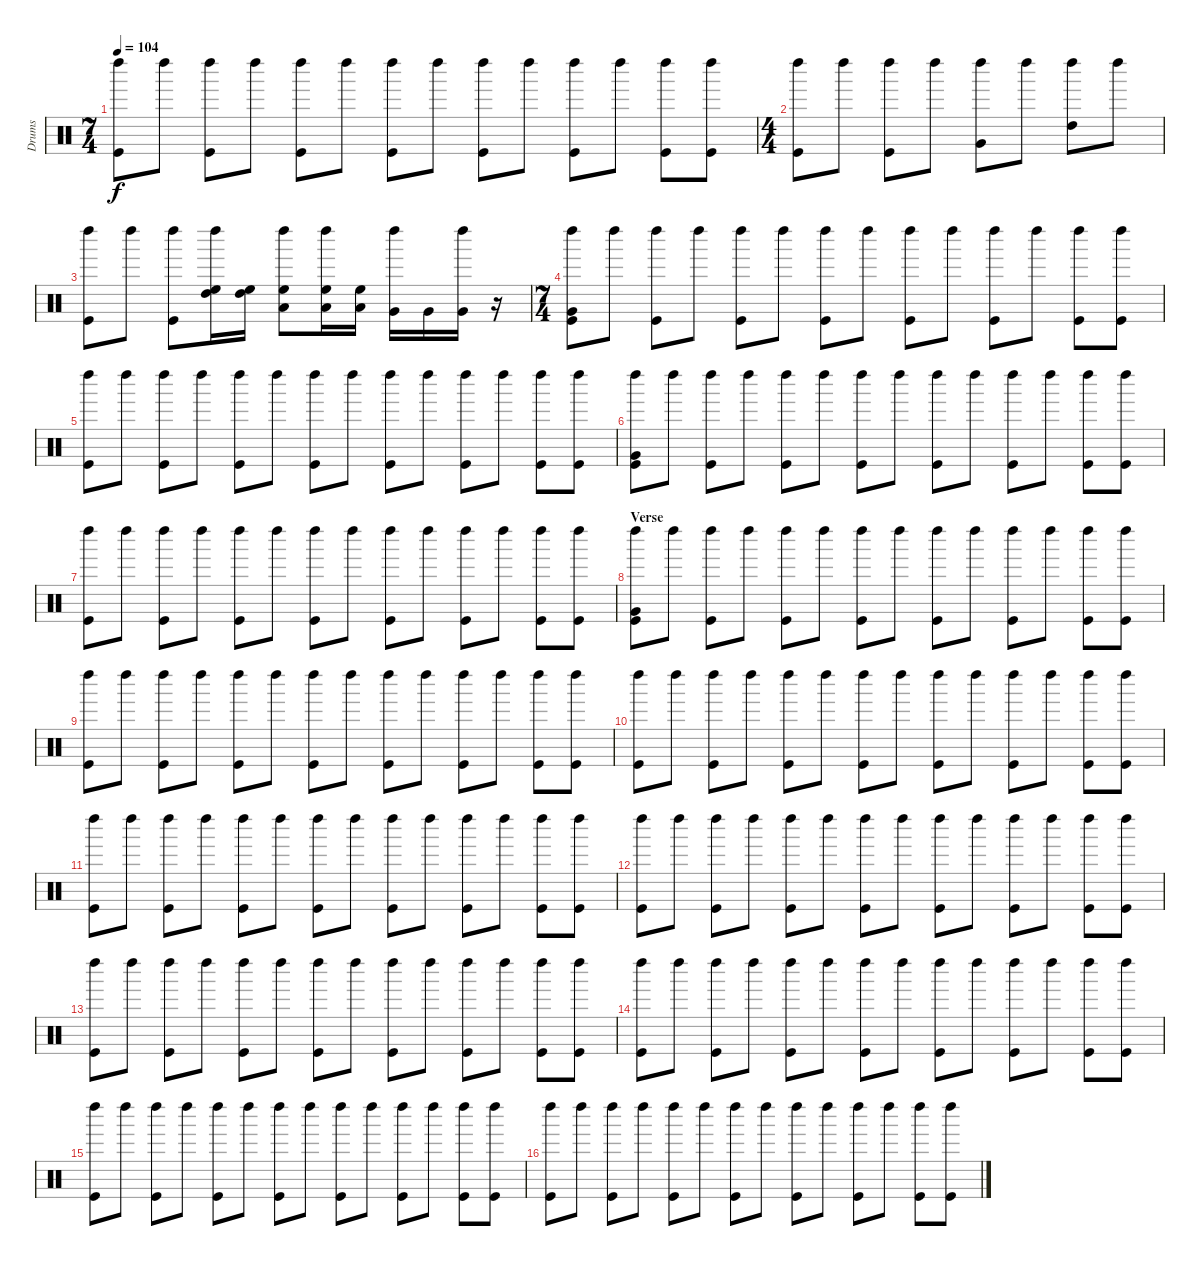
\track ("Drums" "Drums") {instrument percussion}
\staff {score}
\articulation defaults
\ts (7 4)
\tempo 104
\clef neutral
\ks c
("Left Maraca (hit)" "Kick (hit)").8{dy f} "Left Maraca (hit)".8 ("Left Maraca (hit)" "Kick (hit)").8 "Left Maraca (hit)".8 ("Left Maraca (hit)" "Kick (hit)").8 "Left Maraca (hit)".8 ("Left Maraca (hit)" "Kick (hit)").8 "Left Maraca (hit)".8 ("Left Maraca (hit)" "Kick (hit)").8 "Left Maraca (hit)".8 ("Left Maraca (hit)" "Kick (hit)").8 "Left Maraca (hit)".8 ("Left Maraca (hit)" "Kick (hit)").8 ("Left Maraca (hit)" "Kick (hit)").8 |
\ts (4 4)
("Left Maraca (hit)" "Kick (hit)").8 "Left Maraca (hit)".8 ("Left Maraca (hit)" "Kick (hit)").8 "Left Maraca (hit)".8 ("Left Maraca (hit)" "Very Low Tom (hit)").8 "Left Maraca (hit)".8 ("Left Maraca (hit)" "High Tom (hit)").8 "Left Maraca (hit)".8 |
("Left Maraca (hit)" "Kick (hit)").8 "Left Maraca (hit)".8 ("Left Maraca (hit)" "Kick (hit)").8 ("Left Maraca (hit)" "High Floor Tom (hit)" "High Tom (hit)").16 ("High Floor Tom (hit)" "High Tom (hit)").16 ("Left Maraca (hit)" "High Floor Tom (hit)" "Low Tom (hit)").8 ("Left Maraca (hit)" "High Floor Tom (hit)" "Low Tom (hit)").16 ("High Floor Tom (hit)" "Low Tom (hit)").16 ("Left Maraca (hit)" "Very Low Tom (hit)").16 "Very Low Tom (hit)".16 ("Left Maraca (hit)" "Very Low Tom (hit)").16 r.16 |
\ts (7 4)
("Left Maraca (hit)" "Very Low Tom (hit)" "Kick (hit)").8 "Left Maraca (hit)".8 ("Left Maraca (hit)" "Kick (hit)").8 "Left Maraca (hit)".8 ("Left Maraca (hit)" "Kick (hit)").8 "Left Maraca (hit)".8 ("Left Maraca (hit)" "Kick (hit)").8 "Left Maraca (hit)".8 ("Left Maraca (hit)" "Kick (hit)").8 "Left Maraca (hit)".8 ("Left Maraca (hit)" "Kick (hit)").8 "Left Maraca (hit)".8 ("Left Maraca (hit)" "Kick (hit)").8 ("Left Maraca (hit)" "Kick (hit)").8 |
("Left Maraca (hit)" "Kick (hit)").8 "Left Maraca (hit)".8 ("Left Maraca (hit)" "Kick (hit)").8 "Left Maraca (hit)".8 ("Left Maraca (hit)" "Kick (hit)").8 "Left Maraca (hit)".8 ("Left Maraca (hit)" "Kick (hit)").8 "Left Maraca (hit)".8 ("Left Maraca (hit)" "Kick (hit)").8 "Left Maraca (hit)".8 ("Left Maraca (hit)" "Kick (hit)").8 "Left Maraca (hit)".8 ("Left Maraca (hit)" "Kick (hit)").8 ("Left Maraca (hit)" "Kick (hit)").8 |
("Left Maraca (hit)" "Very Low Tom (hit)" "Kick (hit)").8 "Left Maraca (hit)".8 ("Left Maraca (hit)" "Kick (hit)").8 "Left Maraca (hit)".8 ("Left Maraca (hit)" "Kick (hit)").8 "Left Maraca (hit)".8 ("Left Maraca (hit)" "Kick (hit)").8 "Left Maraca (hit)".8 ("Left Maraca (hit)" "Kick (hit)").8 "Left Maraca (hit)".8 ("Left Maraca (hit)" "Kick (hit)").8 "Left Maraca (hit)".8 ("Left Maraca (hit)" "Kick (hit)").8 ("Left Maraca (hit)" "Kick (hit)").8 |
("Left Maraca (hit)" "Kick (hit)").8 "Left Maraca (hit)".8 ("Left Maraca (hit)" "Kick (hit)").8 "Left Maraca (hit)".8 ("Left Maraca (hit)" "Kick (hit)").8 "Left Maraca (hit)".8 ("Left Maraca (hit)" "Kick (hit)").8 "Left Maraca (hit)".8 ("Left Maraca (hit)" "Kick (hit)").8 "Left Maraca (hit)".8 ("Left Maraca (hit)" "Kick (hit)").8 "Left Maraca (hit)".8 ("Left Maraca (hit)" "Kick (hit)").8 ("Left Maraca (hit)" "Kick (hit)").8 |
\section ("" "Verse")
("Left Maraca (hit)" "Very Low Tom (hit)" "Kick (hit)").8 "Left Maraca (hit)".8 ("Left Maraca (hit)" "Kick (hit)").8 "Left Maraca (hit)".8 ("Left Maraca (hit)" "Kick (hit)").8 "Left Maraca (hit)".8 ("Left Maraca (hit)" "Kick (hit)").8 "Left Maraca (hit)".8 ("Left Maraca (hit)" "Kick (hit)").8 "Left Maraca (hit)".8 ("Left Maraca (hit)" "Kick (hit)").8 "Left Maraca (hit)".8 ("Left Maraca (hit)" "Kick (hit)").8 ("Left Maraca (hit)" "Kick (hit)").8 |
("Left Maraca (hit)" "Kick (hit)").8 "Left Maraca (hit)".8 ("Left Maraca (hit)" "Kick (hit)").8 "Left Maraca (hit)".8 ("Left Maraca (hit)" "Kick (hit)").8 "Left Maraca (hit)".8 ("Left Maraca (hit)" "Kick (hit)").8 "Left Maraca (hit)".8 ("Left Maraca (hit)" "Kick (hit)").8 "Left Maraca (hit)".8 ("Left Maraca (hit)" "Kick (hit)").8 "Left Maraca (hit)".8 ("Left Maraca (hit)" "Kick (hit)").8 ("Left Maraca (hit)" "Kick (hit)").8 |
("Left Maraca (hit)" "Kick (hit)").8 "Left Maraca (hit)".8 ("Left Maraca (hit)" "Kick (hit)").8 "Left Maraca (hit)".8 ("Left Maraca (hit)" "Kick (hit)").8 "Left Maraca (hit)".8 ("Left Maraca (hit)" "Kick (hit)").8 "Left Maraca (hit)".8 ("Left Maraca (hit)" "Kick (hit)").8 "Left Maraca (hit)".8 ("Left Maraca (hit)" "Kick (hit)").8 "Left Maraca (hit)".8 ("Left Maraca (hit)" "Kick (hit)").8 ("Left Maraca (hit)" "Kick (hit)").8 |
("Left Maraca (hit)" "Kick (hit)").8 "Left Maraca (hit)".8 ("Left Maraca (hit)" "Kick (hit)").8 "Left Maraca (hit)".8 ("Left Maraca (hit)" "Kick (hit)").8 "Left Maraca (hit)".8 ("Left Maraca (hit)" "Kick (hit)").8 "Left Maraca (hit)".8 ("Left Maraca (hit)" "Kick (hit)").8 "Left Maraca (hit)".8 ("Left Maraca (hit)" "Kick (hit)").8 "Left Maraca (hit)".8 ("Left Maraca (hit)" "Kick (hit)").8 ("Left Maraca (hit)" "Kick (hit)").8 |
("Left Maraca (hit)" "Kick (hit)").8 "Left Maraca (hit)".8 ("Left Maraca (hit)" "Kick (hit)").8 "Left Maraca (hit)".8 ("Left Maraca (hit)" "Kick (hit)").8 "Left Maraca (hit)".8 ("Left Maraca (hit)" "Kick (hit)").8 "Left Maraca (hit)".8 ("Left Maraca (hit)" "Kick (hit)").8 "Left Maraca (hit)".8 ("Left Maraca (hit)" "Kick (hit)").8 "Left Maraca (hit)".8 ("Left Maraca (hit)" "Kick (hit)").8 ("Left Maraca (hit)" "Kick (hit)").8 |
("Left Maraca (hit)" "Kick (hit)").8 "Left Maraca (hit)".8 ("Left Maraca (hit)" "Kick (hit)").8 "Left Maraca (hit)".8 ("Left Maraca (hit)" "Kick (hit)").8 "Left Maraca (hit)".8 ("Left Maraca (hit)" "Kick (hit)").8 "Left Maraca (hit)".8 ("Left Maraca (hit)" "Kick (hit)").8 "Left Maraca (hit)".8 ("Left Maraca (hit)" "Kick (hit)").8 "Left Maraca (hit)".8 ("Left Maraca (hit)" "Kick (hit)").8 ("Left Maraca (hit)" "Kick (hit)").8 |
("Left Maraca (hit)" "Kick (hit)").8 "Left Maraca (hit)".8 ("Left Maraca (hit)" "Kick (hit)").8 "Left Maraca (hit)".8 ("Left Maraca (hit)" "Kick (hit)").8 "Left Maraca (hit)".8 ("Left Maraca (hit)" "Kick (hit)").8 "Left Maraca (hit)".8 ("Left Maraca (hit)" "Kick (hit)").8 "Left Maraca (hit)".8 ("Left Maraca (hit)" "Kick (hit)").8 "Left Maraca (hit)".8 ("Left Maraca (hit)" "Kick (hit)").8 ("Left Maraca (hit)" "Kick (hit)").8 |
("Left Maraca (hit)" "Kick (hit)").8 "Left Maraca (hit)".8 ("Left Maraca (hit)" "Kick (hit)").8 "Left Maraca (hit)".8 ("Left Maraca (hit)" "Kick (hit)").8 "Left Maraca (hit)".8 ("Left Maraca (hit)" "Kick (hit)").8 "Left Maraca (hit)".8 ("Left Maraca (hit)" "Kick (hit)").8 "Left Maraca (hit)".8 ("Left Maraca (hit)" "Kick (hit)").8 "Left Maraca (hit)".8 ("Left Maraca (hit)" "Kick (hit)").8 ("Left Maraca (hit)" "Kick (hit)").8 |
("Left Maraca (hit)" "Kick (hit)").8 "Left Maraca (hit)".8 ("Left Maraca (hit)" "Kick (hit)").8 "Left Maraca (hit)".8 ("Left Maraca (hit)" "Kick (hit)").8 "Left Maraca (hit)".8 ("Left Maraca (hit)" "Kick (hit)").8 "Left Maraca (hit)".8 ("Left Maraca (hit)" "Kick (hit)").8 "Left Maraca (hit)".8 ("Left Maraca (hit)" "Kick (hit)").8 "Left Maraca (hit)".8 ("Left Maraca (hit)" "Kick (hit)").8 ("Left Maraca (hit)" "Kick (hit)").8
